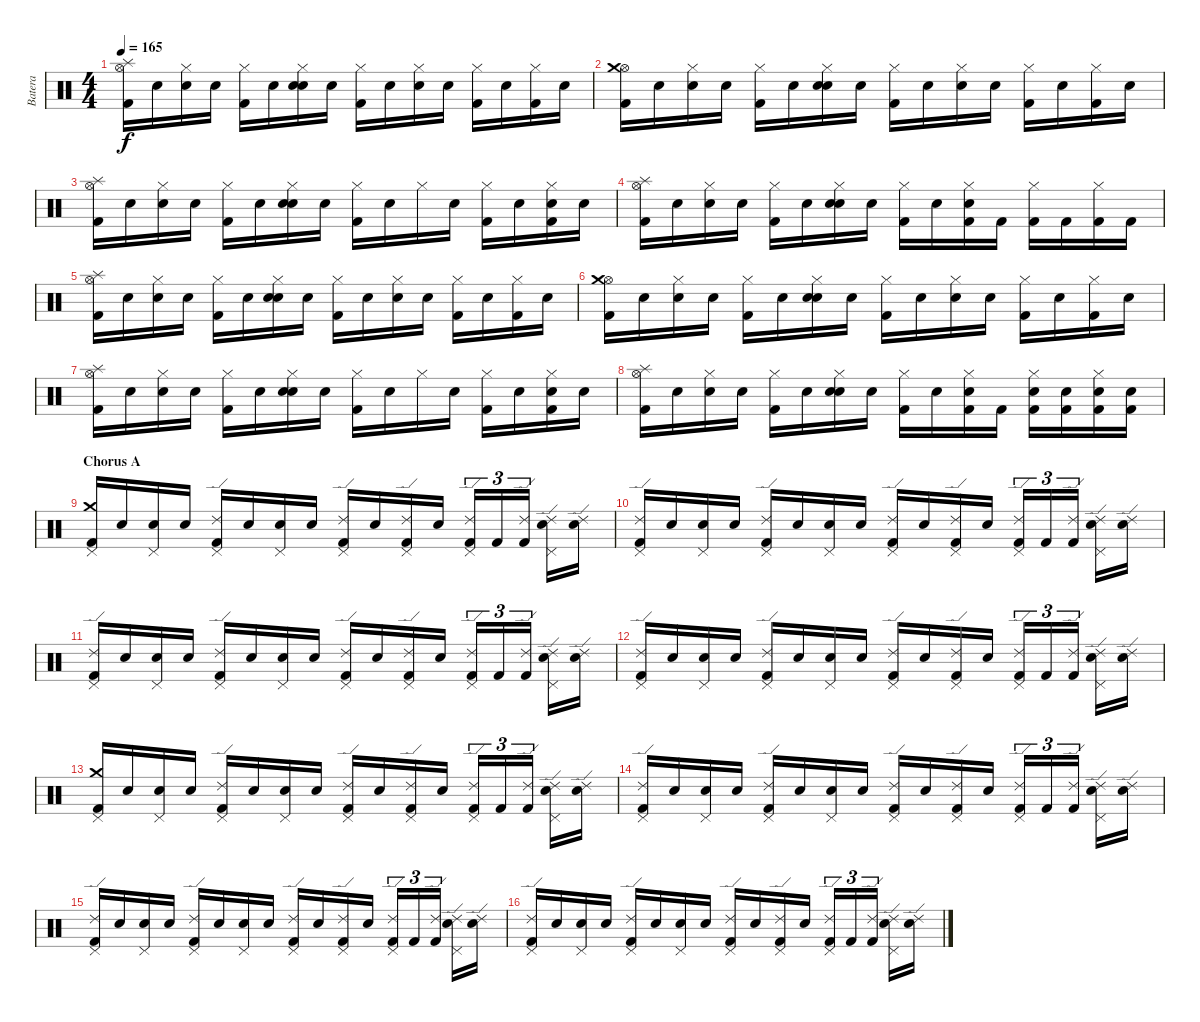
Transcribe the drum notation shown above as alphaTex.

\track ("Batera" "Batera") {instrument percussion}
\staff {score}
\articulation defaults
\ts (4 4)
\tempo 165
\clef neutral
\ks c
("Kick (hit) 2" "Hi-Hat (open)" "Splash (hit)").16{dy f} "Snare (hit)".16 ("Snare (hit)" "Hi-Hat (closed)").16 "Snare (hit)".16 ("Kick (hit) 2" "Hi-Hat (closed)").16 "Snare (hit)".16 ("Snare (hit)" "Hi-Hat (closed)" "Snare (hit) 2").16 "Snare (hit)".16 ("Kick (hit) 2" "Hi-Hat (closed)").16 "Snare (hit)".16 ("Hi-Hat (closed)" "Snare (hit) 2").16 "Snare (hit)".16 ("Kick (hit) 2" "Hi-Hat (closed)").16 "Snare (hit)".16 ("Kick (hit) 2" "Hi-Hat (closed)").16 "Snare (hit)".16 |
("Kick (hit) 2" "Hi-Hat (open)" "Crash medium (hit)").16 "Snare (hit)".16 ("Snare (hit)" "Hi-Hat (closed)").16 "Snare (hit)".16 ("Kick (hit) 2" "Hi-Hat (closed)").16 "Snare (hit)".16 ("Snare (hit)" "Hi-Hat (closed)" "Snare (hit) 2").16 "Snare (hit)".16 ("Kick (hit) 2" "Hi-Hat (closed)").16 "Snare (hit)".16 ("Hi-Hat (closed)" "Snare (hit) 2").16 "Snare (hit)".16 ("Kick (hit) 2" "Hi-Hat (closed)").16 "Snare (hit)".16 ("Kick (hit) 2" "Hi-Hat (closed)").16 "Snare (hit)".16 |
("Kick (hit) 2" "Hi-Hat (open)" "Splash (hit)").16 "Snare (hit)".16 ("Snare (hit)" "Hi-Hat (closed)").16 "Snare (hit)".16 ("Kick (hit) 2" "Hi-Hat (closed)").16 "Snare (hit)".16 ("Snare (hit)" "Hi-Hat (closed)" "Snare (hit) 2").16 "Snare (hit)".16 ("Kick (hit) 2" "Hi-Hat (closed)").16 "Snare (hit)".16 "Hi-Hat (closed)".16 "Snare (hit)".16 ("Kick (hit) 2" "Hi-Hat (closed)").16 "Snare (hit)".16 ("Kick (hit) 2" "Hi-Hat (closed)" "Snare (hit) 2").16 "Snare (hit)".16 |
("Kick (hit) 2" "Hi-Hat (open)" "Splash (hit)").16 "Snare (hit)".16 ("Snare (hit)" "Hi-Hat (closed)").16 "Snare (hit)".16 ("Kick (hit) 2" "Hi-Hat (closed)").16 "Snare (hit)".16 ("Snare (hit)" "Hi-Hat (closed)" "Snare (hit) 2").16 "Snare (hit)".16 ("Kick (hit) 2" "Hi-Hat (closed)").16 "Snare (hit)".16 ("Kick (hit) 2" "Hi-Hat (closed)" "Snare (hit) 2").16 "Kick (hit) 2".16 ("Kick (hit) 2" "Hi-Hat (closed)").16 "Kick (hit) 2".16 ("Kick (hit) 2" "Hi-Hat (closed)").16 "Kick (hit) 2".16 |
("Kick (hit) 2" "Hi-Hat (open)" "Splash (hit)").16 "Snare (hit)".16 ("Snare (hit)" "Hi-Hat (closed)").16 "Snare (hit)".16 ("Kick (hit) 2" "Hi-Hat (closed)").16 "Snare (hit)".16 ("Snare (hit)" "Hi-Hat (closed)" "Snare (hit) 2").16 "Snare (hit)".16 ("Kick (hit) 2" "Hi-Hat (closed)").16 "Snare (hit)".16 ("Hi-Hat (closed)" "Snare (hit) 2").16 "Snare (hit)".16 ("Kick (hit) 2" "Hi-Hat (closed)").16 "Snare (hit)".16 ("Kick (hit) 2" "Hi-Hat (closed)").16 "Snare (hit)".16 |
("Kick (hit) 2" "Hi-Hat (open)" "Crash medium (hit)").16 "Snare (hit)".16 ("Snare (hit)" "Hi-Hat (closed)").16 "Snare (hit)".16 ("Kick (hit) 2" "Hi-Hat (closed)").16 "Snare (hit)".16 ("Snare (hit)" "Hi-Hat (closed)" "Snare (hit) 2").16 "Snare (hit)".16 ("Kick (hit) 2" "Hi-Hat (closed)").16 "Snare (hit)".16 ("Hi-Hat (closed)" "Snare (hit) 2").16 "Snare (hit)".16 ("Kick (hit) 2" "Hi-Hat (closed)").16 "Snare (hit)".16 ("Kick (hit) 2" "Hi-Hat (closed)").16 "Snare (hit)".16 |
("Kick (hit) 2" "Hi-Hat (open)" "Splash (hit)").16 "Snare (hit)".16 ("Snare (hit)" "Hi-Hat (closed)").16 "Snare (hit)".16 ("Kick (hit) 2" "Hi-Hat (closed)").16 "Snare (hit)".16 ("Snare (hit)" "Hi-Hat (closed)" "Snare (hit) 2").16 "Snare (hit)".16 ("Kick (hit) 2" "Hi-Hat (closed)").16 "Snare (hit)".16 "Hi-Hat (closed)".16 "Snare (hit)".16 ("Kick (hit) 2" "Hi-Hat (closed)").16 "Snare (hit)".16 ("Kick (hit) 2" "Hi-Hat (closed)" "Snare (hit) 2").16 "Snare (hit)".16 |
("Kick (hit) 2" "Hi-Hat (open)" "Splash (hit)").16 "Snare (hit)".16 ("Snare (hit)" "Hi-Hat (closed)").16 "Snare (hit)".16 ("Kick (hit) 2" "Hi-Hat (closed)").16 "Snare (hit)".16 ("Snare (hit)" "Hi-Hat (closed)" "Snare (hit) 2").16 "Snare (hit)".16 ("Kick (hit) 2" "Hi-Hat (closed)").16 "Snare (hit)".16 ("Kick (hit) 2" "Hi-Hat (closed)" "Snare (hit) 2").16 "Kick (hit) 2".16 ("Kick (hit) 2" "Hi-Hat (closed)" "Snare (hit) 2").16 ("Kick (hit) 2" "Snare (hit) 2").16 ("Kick (hit) 2" "Hi-Hat (closed)" "Snare (hit) 2").16 ("Kick (hit) 2" "Snare (hit) 2").16 |
\section ("" "Chorus A")
("Kick (hit) 2" "Pedal Hi-Hat (hit)" "Crash medium (hit)").16 "Snare (hit)".16 ("Snare (hit)" "Pedal Hi-Hat (hit)").16 "Snare (hit)".16 ("Kick (hit) 2" "Pedal Hi-Hat (hit)" "Ride (edge) 2").16 "Snare (hit)".16 ("Pedal Hi-Hat (hit)" "Snare (hit) 2").16 "Snare (hit)".16 ("Kick (hit) 2" "Pedal Hi-Hat (hit)" "Ride (edge) 2").16 "Snare (hit)".16 ("Kick (hit) 2" "Pedal Hi-Hat (hit)" "Ride (edge) 2").16 "Snare (hit)".16 ("Kick (hit) 2" "Pedal Hi-Hat (hit)" "Ride (edge) 2").16{tu (3 2)} "Kick (hit) 2".16{tu (3 2)} ("Kick (hit) 2" "Ride (edge) 2").16{tu (3 2)} ("Pedal Hi-Hat (hit)" "Snare (hit) 2" "Ride (edge) 2").16 ("Snare (hit)" "Ride (edge) 2").16 |
("Kick (hit) 2" "Pedal Hi-Hat (hit)" "Ride (edge) 2").16 "Snare (hit)".16 ("Snare (hit)" "Pedal Hi-Hat (hit)").16 "Snare (hit)".16 ("Kick (hit) 2" "Pedal Hi-Hat (hit)" "Ride (edge) 2").16 "Snare (hit)".16 ("Pedal Hi-Hat (hit)" "Snare (hit) 2").16 "Snare (hit)".16 ("Kick (hit) 2" "Pedal Hi-Hat (hit)" "Ride (edge) 2").16 "Snare (hit)".16 ("Kick (hit) 2" "Pedal Hi-Hat (hit)" "Ride (edge) 2").16 "Snare (hit)".16 ("Kick (hit) 2" "Pedal Hi-Hat (hit)" "Ride (edge) 2").16{tu (3 2)} "Kick (hit) 2".16{tu (3 2)} ("Kick (hit) 2" "Ride (edge) 2").16{tu (3 2)} ("Pedal Hi-Hat (hit)" "Snare (hit) 2" "Ride (edge) 2").16 ("Snare (hit)" "Ride (edge) 2").16 |
("Kick (hit) 2" "Pedal Hi-Hat (hit)" "Ride (edge) 2").16 "Snare (hit)".16 ("Snare (hit)" "Pedal Hi-Hat (hit)").16 "Snare (hit)".16 ("Kick (hit) 2" "Pedal Hi-Hat (hit)" "Ride (edge) 2").16 "Snare (hit)".16 ("Pedal Hi-Hat (hit)" "Snare (hit) 2").16 "Snare (hit)".16 ("Kick (hit) 2" "Pedal Hi-Hat (hit)" "Ride (edge) 2").16 "Snare (hit)".16 ("Kick (hit) 2" "Pedal Hi-Hat (hit)" "Ride (edge) 2").16 "Snare (hit)".16 ("Kick (hit) 2" "Pedal Hi-Hat (hit)" "Ride (edge) 2").16{tu (3 2)} "Kick (hit) 2".16{tu (3 2)} ("Kick (hit) 2" "Ride (edge) 2").16{tu (3 2)} ("Pedal Hi-Hat (hit)" "Snare (hit) 2" "Ride (edge) 2").16 ("Snare (hit)" "Ride (edge) 2").16 |
("Kick (hit) 2" "Pedal Hi-Hat (hit)" "Ride (edge) 2").16 "Snare (hit)".16 ("Snare (hit)" "Pedal Hi-Hat (hit)").16 "Snare (hit)".16 ("Kick (hit) 2" "Pedal Hi-Hat (hit)" "Ride (edge) 2").16 "Snare (hit)".16 ("Pedal Hi-Hat (hit)" "Snare (hit) 2").16 "Snare (hit)".16 ("Kick (hit) 2" "Pedal Hi-Hat (hit)" "Ride (edge) 2").16 "Snare (hit)".16 ("Kick (hit) 2" "Pedal Hi-Hat (hit)" "Ride (edge) 2").16 "Snare (hit)".16 ("Kick (hit) 2" "Pedal Hi-Hat (hit)" "Ride (edge) 2").16{tu (3 2)} "Kick (hit) 2".16{tu (3 2)} ("Kick (hit) 2" "Ride (edge) 2").16{tu (3 2)} ("Pedal Hi-Hat (hit)" "Snare (hit) 2" "Ride (edge) 2").16 ("Snare (hit)" "Ride (edge) 2").16 |
("Kick (hit) 2" "Pedal Hi-Hat (hit)" "Crash medium (hit)").16 "Snare (hit)".16 ("Snare (hit)" "Pedal Hi-Hat (hit)").16 "Snare (hit)".16 ("Kick (hit) 2" "Pedal Hi-Hat (hit)" "Ride (edge) 2").16 "Snare (hit)".16 ("Pedal Hi-Hat (hit)" "Snare (hit) 2").16 "Snare (hit)".16 ("Kick (hit) 2" "Pedal Hi-Hat (hit)" "Ride (edge) 2").16 "Snare (hit)".16 ("Kick (hit) 2" "Pedal Hi-Hat (hit)" "Ride (edge) 2").16 "Snare (hit)".16 ("Kick (hit) 2" "Pedal Hi-Hat (hit)" "Ride (edge) 2").16{tu (3 2)} "Kick (hit) 2".16{tu (3 2)} ("Kick (hit) 2" "Ride (edge) 2").16{tu (3 2)} ("Pedal Hi-Hat (hit)" "Snare (hit) 2" "Ride (edge) 2").16 ("Snare (hit)" "Ride (edge) 2").16 |
("Kick (hit) 2" "Pedal Hi-Hat (hit)" "Ride (edge) 2").16 "Snare (hit)".16 ("Snare (hit)" "Pedal Hi-Hat (hit)").16 "Snare (hit)".16 ("Kick (hit) 2" "Pedal Hi-Hat (hit)" "Ride (edge) 2").16 "Snare (hit)".16 ("Pedal Hi-Hat (hit)" "Snare (hit) 2").16 "Snare (hit)".16 ("Kick (hit) 2" "Pedal Hi-Hat (hit)" "Ride (edge) 2").16 "Snare (hit)".16 ("Kick (hit) 2" "Pedal Hi-Hat (hit)" "Ride (edge) 2").16 "Snare (hit)".16 ("Kick (hit) 2" "Pedal Hi-Hat (hit)" "Ride (edge) 2").16{tu (3 2)} "Kick (hit) 2".16{tu (3 2)} ("Kick (hit) 2" "Ride (edge) 2").16{tu (3 2)} ("Pedal Hi-Hat (hit)" "Snare (hit) 2" "Ride (edge) 2").16 ("Snare (hit)" "Ride (edge) 2").16 |
("Kick (hit) 2" "Pedal Hi-Hat (hit)" "Ride (edge) 2").16 "Snare (hit)".16 ("Snare (hit)" "Pedal Hi-Hat (hit)").16 "Snare (hit)".16 ("Kick (hit) 2" "Pedal Hi-Hat (hit)" "Ride (edge) 2").16 "Snare (hit)".16 ("Pedal Hi-Hat (hit)" "Snare (hit) 2").16 "Snare (hit)".16 ("Kick (hit) 2" "Pedal Hi-Hat (hit)" "Ride (edge) 2").16 "Snare (hit)".16 ("Kick (hit) 2" "Pedal Hi-Hat (hit)" "Ride (edge) 2").16 "Snare (hit)".16 ("Kick (hit) 2" "Pedal Hi-Hat (hit)" "Ride (edge) 2").16{tu (3 2)} "Kick (hit) 2".16{tu (3 2)} ("Kick (hit) 2" "Ride (edge) 2").16{tu (3 2)} ("Pedal Hi-Hat (hit)" "Snare (hit) 2" "Ride (edge) 2").16 ("Snare (hit)" "Ride (edge) 2").16 |
("Kick (hit) 2" "Pedal Hi-Hat (hit)" "Ride (edge) 2").16 "Snare (hit)".16 ("Snare (hit)" "Pedal Hi-Hat (hit)").16 "Snare (hit)".16 ("Kick (hit) 2" "Pedal Hi-Hat (hit)" "Ride (edge) 2").16 "Snare (hit)".16 ("Pedal Hi-Hat (hit)" "Snare (hit) 2").16 "Snare (hit)".16 ("Kick (hit) 2" "Pedal Hi-Hat (hit)" "Ride (edge) 2").16 "Snare (hit)".16 ("Kick (hit) 2" "Pedal Hi-Hat (hit)" "Ride (edge) 2").16 "Snare (hit)".16 ("Kick (hit) 2" "Pedal Hi-Hat (hit)" "Ride (edge) 2").16{tu (3 2)} "Kick (hit) 2".16{tu (3 2)} ("Kick (hit) 2" "Ride (edge) 2").16{tu (3 2)} ("Pedal Hi-Hat (hit)" "Snare (hit) 2" "Ride (edge) 2").16 ("Snare (hit)" "Ride (edge) 2").16
